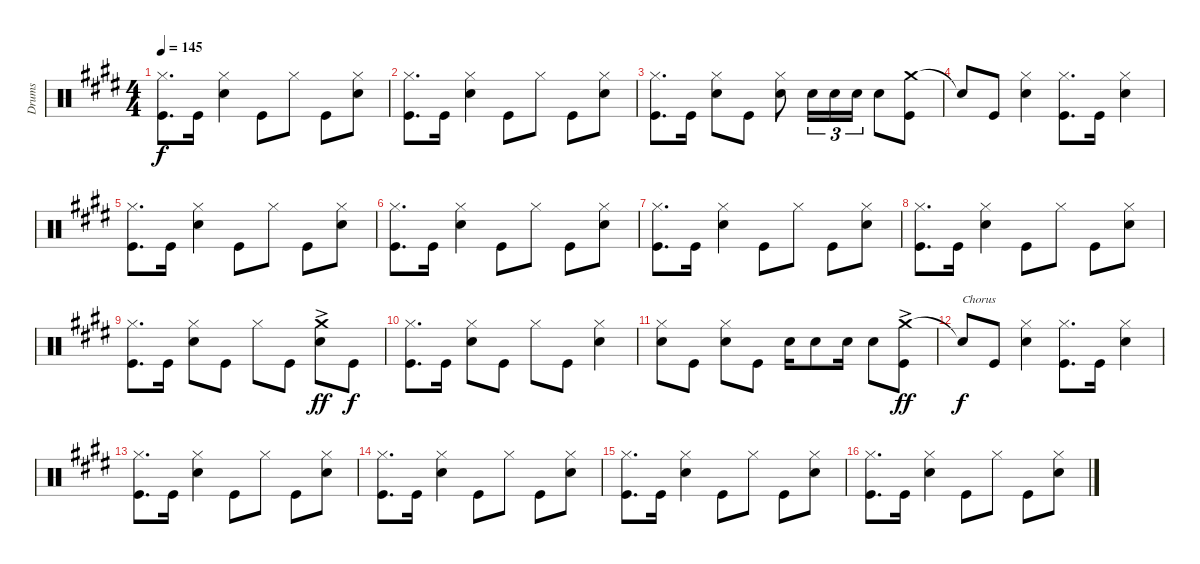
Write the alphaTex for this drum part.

\track ("Drums" "Drums") {instrument percussion}
\staff {score}
\articulation defaults
\ts (4 4)
\tempo 145
\clef neutral
\ks e
("Hi-Hat (closed)" "Kick (hit)").8{d dy f} "Kick (hit)".16 ("Hi-Hat (closed)" "Snare (hit) 2").4 "Kick (hit)".8 "Hi-Hat (closed)".8 "Kick (hit)".8 ("Hi-Hat (closed)" "Snare (hit) 2").8 |
("Hi-Hat (closed)" "Kick (hit)").8{d} "Kick (hit)".16 ("Hi-Hat (closed)" "Snare (hit) 2").4 "Kick (hit)".8 "Hi-Hat (closed)".8 "Kick (hit)".8 ("Hi-Hat (closed)" "Snare (hit) 2").8 |
("Hi-Hat (closed)" "Kick (hit)").8{d} "Kick (hit)".16 ("Hi-Hat (closed)" "Snare (hit) 2").8 "Kick (hit)".8 ("Hi-Hat (closed)" "Snare (hit) 2").8 "Snare (hit) 2".16{tu (3 2)} "Snare (hit) 2".16{tu (3 2)} "Snare (hit) 2".16{tu (3 2)} "Snare (hit) 2".8 ("Crash medium (hit)" "Kick (hit)").8 |
"Snare (hit)"{t}.8 "Kick (hit)".8 ("Hi-Hat (closed)" "Snare (hit) 2").4 ("Hi-Hat (closed)" "Kick (hit)").8{d} "Kick (hit)".16 ("Hi-Hat (closed)" "Snare (hit) 2").4 |
("Hi-Hat (closed)" "Kick (hit)").8{d} "Kick (hit)".16 ("Hi-Hat (closed)" "Snare (hit) 2").4 "Kick (hit)".8 "Hi-Hat (closed)".8 "Kick (hit)".8 ("Hi-Hat (closed)" "Snare (hit) 2").8 |
("Hi-Hat (closed)" "Kick (hit)").8{d} "Kick (hit)".16 ("Hi-Hat (closed)" "Snare (hit) 2").4 "Kick (hit)".8 "Hi-Hat (closed)".8 "Kick (hit)".8 ("Hi-Hat (closed)" "Snare (hit) 2").8 |
("Hi-Hat (closed)" "Kick (hit)").8{d} "Kick (hit)".16 ("Hi-Hat (closed)" "Snare (hit) 2").4 "Kick (hit)".8 "Hi-Hat (closed)".8 "Kick (hit)".8 ("Hi-Hat (closed)" "Snare (hit) 2").8 |
("Hi-Hat (closed)" "Kick (hit)").8{d} "Kick (hit)".16 ("Hi-Hat (closed)" "Snare (hit) 2").4 "Kick (hit)".8 "Hi-Hat (closed)".8 "Kick (hit)".8 ("Hi-Hat (closed)" "Snare (hit) 2").8 |
("Hi-Hat (closed)" "Kick (hit)").8{d} "Kick (hit)".16 ("Hi-Hat (closed)" "Snare (hit) 2").8 "Kick (hit)".8 "Hi-Hat (closed)".8 "Kick (hit)".8 ("Crash medium (hit)"{ac} "Snare (hit) 2").8{dy ff} "Kick (hit)".8{dy f} |
("Hi-Hat (closed)" "Kick (hit)").8{d} "Kick (hit)".16 ("Hi-Hat (closed)" "Snare (hit) 2").8 "Kick (hit)".8 "Hi-Hat (closed)".8 "Kick (hit)".8 ("Hi-Hat (closed)" "Snare (hit) 2").4 |
("Hi-Hat (closed)" "Snare (hit) 2").8 "Kick (hit)".8 ("Hi-Hat (closed)" "Snare (hit) 2").8 "Kick (hit)".8 "Snare (hit) 2".16 "Snare (hit) 2".8 "Snare (hit) 2".16 "Snare (hit) 2".8 ("Crash medium (hit)"{ac} "Kick (hit)").8{dy ff} |
"Snare (hit)"{t}.8{txt "Chorus" dy f} "Kick (hit)".8 ("Hi-Hat (closed)" "Snare (hit) 2").4 ("Hi-Hat (closed)" "Kick (hit)").8{d} "Kick (hit)".16 ("Hi-Hat (closed)" "Snare (hit) 2").4 |
("Hi-Hat (closed)" "Kick (hit)").8{d} "Kick (hit)".16 ("Hi-Hat (closed)" "Snare (hit) 2").4 "Kick (hit)".8 "Hi-Hat (closed)".8 "Kick (hit)".8 ("Hi-Hat (closed)" "Snare (hit) 2").8 |
("Hi-Hat (closed)" "Kick (hit)").8{d} "Kick (hit)".16 ("Hi-Hat (closed)" "Snare (hit) 2").4 "Kick (hit)".8 "Hi-Hat (closed)".8 "Kick (hit)".8 ("Hi-Hat (closed)" "Snare (hit) 2").8 |
("Hi-Hat (closed)" "Kick (hit)").8{d} "Kick (hit)".16 ("Hi-Hat (closed)" "Snare (hit) 2").4 "Kick (hit)".8 "Hi-Hat (closed)".8 "Kick (hit)".8 ("Hi-Hat (closed)" "Snare (hit) 2").8 |
("Hi-Hat (closed)" "Kick (hit)").8{d} "Kick (hit)".16 ("Hi-Hat (closed)" "Snare (hit) 2").4 "Kick (hit)".8 "Hi-Hat (closed)".8 "Kick (hit)".8 ("Hi-Hat (closed)" "Snare (hit) 2").8
